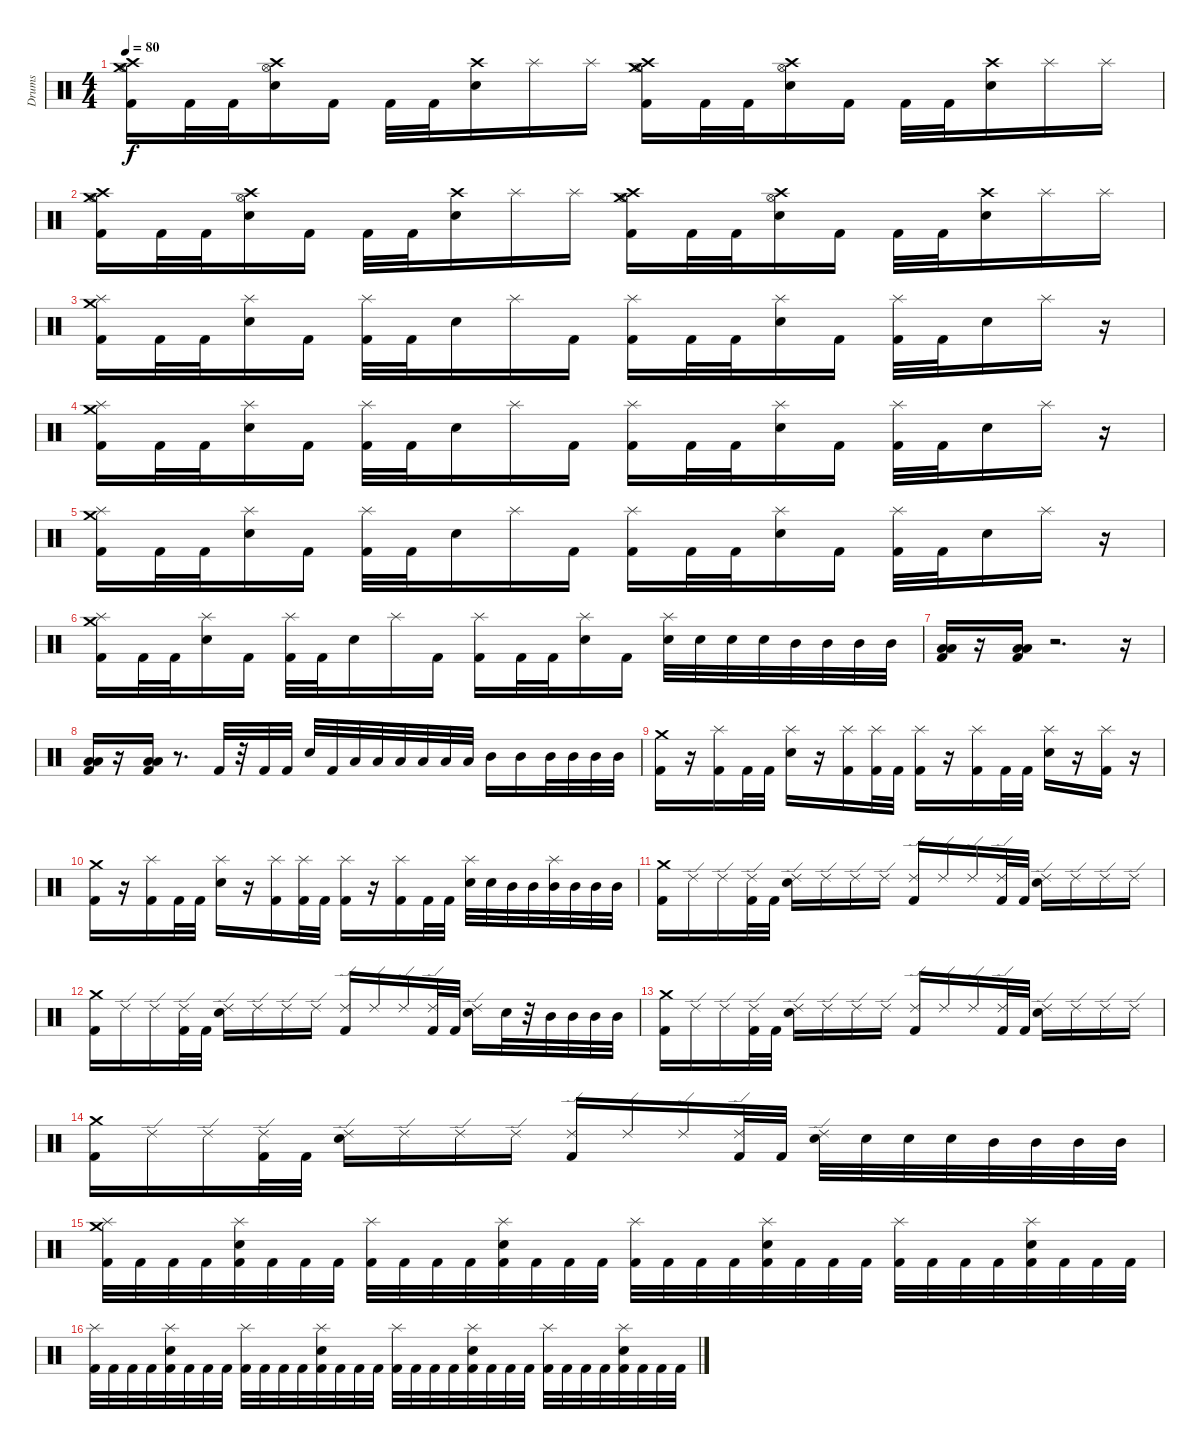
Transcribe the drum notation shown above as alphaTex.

\track ("Drums" "Drums") {instrument percussion}
\staff {score}
\articulation defaults
\ts (4 4)
\tempo 80
\clef neutral
\ks c
("Kick (hit) 2" "Hi-Hat (open)" "Crash high (hit)" "Crash medium (hit)").16{dy f} "Kick (hit) 2".32 "Kick (hit) 2".32 ("Crash high (hit)" "Hi-Hat (open)" "Electric Snare (hit)").16 "Kick (hit) 2".16 "Kick (hit) 2".32 "Kick (hit) 2".32 ("Electric Snare (hit)" "Crash high (hit)").16 "Splash (hit)".16 "Splash (hit)".16 ("Crash high (hit)" "Crash medium (hit)" "Hi-Hat (open)" "Kick (hit) 2").16 "Kick (hit) 2".32 "Kick (hit) 2".32 ("Electric Snare (hit)" "Crash high (hit)" "Hi-Hat (open)").16 "Kick (hit) 2".16 "Kick (hit) 2".32 "Kick (hit) 2".32 ("Electric Snare (hit)" "Crash high (hit)").16 "Splash (hit)".16 "Splash (hit)".16 |
("Hi-Hat (open)" "Crash medium (hit)" "Crash high (hit)" "Kick (hit) 2").16 "Kick (hit) 2".32 "Kick (hit) 2".32 ("Hi-Hat (open)" "Electric Snare (hit)" "Crash high (hit)").16 "Kick (hit) 2".16 "Kick (hit) 2".32 "Kick (hit) 2".32 ("Crash high (hit)" "Electric Snare (hit)").16 "Splash (hit)".16 "Splash (hit)".16 ("Crash medium (hit)" "Kick (hit) 2" "Hi-Hat (open)" "Crash high (hit)").16 "Kick (hit) 2".32 "Kick (hit) 2".32 ("Hi-Hat (open)" "Electric Snare (hit)" "Crash high (hit)").16 "Kick (hit) 2".16 "Kick (hit) 2".32 "Kick (hit) 2".32 ("Crash high (hit)" "Electric Snare (hit)").16 "Splash (hit)".16 "Splash (hit)".16 |
("Crash medium (hit)" "Splash (hit)" "Kick (hit) 2").16 "Kick (hit) 2".32 "Kick (hit) 2".32 ("Splash (hit)" "Electric Snare (hit)").16 "Kick (hit) 2".16 ("Splash (hit)" "Kick (hit) 2").32 "Kick (hit) 2".32 "Electric Snare (hit)".16 "Splash (hit)".16 "Kick (hit) 2".16 ("Splash (hit)" "Kick (hit) 2").16 "Kick (hit) 2".32 "Kick (hit) 2".32 ("Splash (hit)" "Electric Snare (hit)").16 "Kick (hit) 2".16 ("Splash (hit)" "Kick (hit) 2").32 "Kick (hit) 2".32 "Electric Snare (hit)".16 "Splash (hit)".16 r.16 |
("Crash medium (hit)" "Splash (hit)" "Kick (hit) 2").16 "Kick (hit) 2".32 "Kick (hit) 2".32 ("Splash (hit)" "Electric Snare (hit)").16 "Kick (hit) 2".16 ("Splash (hit)" "Kick (hit) 2").32 "Kick (hit) 2".32 "Electric Snare (hit)".16 "Splash (hit)".16 "Kick (hit) 2".16 ("Splash (hit)" "Kick (hit) 2").16 "Kick (hit) 2".32 "Kick (hit) 2".32 ("Splash (hit)" "Electric Snare (hit)").16 "Kick (hit) 2".16 ("Splash (hit)" "Kick (hit) 2").32 "Kick (hit) 2".32 "Electric Snare (hit)".16 "Splash (hit)".16 r.16 |
("Crash medium (hit)" "Splash (hit)" "Kick (hit) 2").16 "Kick (hit) 2".32 "Kick (hit) 2".32 ("Splash (hit)" "Electric Snare (hit)").16 "Kick (hit) 2".16 ("Splash (hit)" "Kick (hit) 2").32 "Kick (hit) 2".32 "Electric Snare (hit)".16 "Splash (hit)".16 "Kick (hit) 2".16 ("Splash (hit)" "Kick (hit) 2").16 "Kick (hit) 2".32 "Kick (hit) 2".32 ("Splash (hit)" "Electric Snare (hit)").16 "Kick (hit) 2".16 ("Splash (hit)" "Kick (hit) 2").32 "Kick (hit) 2".32 "Electric Snare (hit)".16 "Splash (hit)".16 r.16 |
("Crash medium (hit)" "Splash (hit)" "Kick (hit) 2").16 "Kick (hit) 2".32 "Kick (hit) 2".32 ("Splash (hit)" "Electric Snare (hit)").16 "Kick (hit) 2".16 ("Splash (hit)" "Kick (hit) 2").32 "Kick (hit) 2".32 "Electric Snare (hit)".16 "Splash (hit)".16 "Kick (hit) 2".16 ("Splash (hit)" "Kick (hit) 2").16 "Kick (hit) 2".32 "Kick (hit) 2".32 ("Splash (hit)" "Electric Snare (hit)").16 "Kick (hit) 2".16 ("Splash (hit)" "Electric Snare (hit)").32 "Electric Snare (hit)".32 "Electric Snare (hit)".32 "Electric Snare (hit)".32 "Mid Tom (hit)".32 "Mid Tom (hit)".32 "Mid Tom (hit)".32 "Mid Tom (hit)".32 |
("Low Floor Tom (hit)" "Low Tom (hit)" "Kick (hit) 2").16 r.16 ("Kick (hit) 2" "Low Floor Tom (hit)" "Low Tom (hit)").16 r.2{d} r.16 |
("Low Tom (hit)" "Kick (hit) 2" "Low Floor Tom (hit)").16 r.16 ("Kick (hit) 2" "Low Floor Tom (hit)" "Low Tom (hit)").16 r.8{d} "Kick (hit) 2".32 r.32 "Kick (hit) 2".32 "Kick (hit) 2".32 "Electric Snare (hit)".32 "Kick (hit) 2".32 "Low Tom (hit)".32 "Low Tom (hit)".32 "Low Tom (hit)".32 "Low Tom (hit)".32 "Low Tom (hit)".32 "Low Tom (hit)".32 "Mid Tom (hit)".16 "Mid Tom (hit)".16 "Mid Tom (hit)".32 "Mid Tom (hit)".32 "Mid Tom (hit)".32 "Mid Tom (hit)".32 |
("Crash medium (hit)" "Kick (hit) 2").16 r.16 ("Kick (hit) 2" "Splash (hit)").16 "Kick (hit) 2".32 "Kick (hit) 2".32 ("Splash (hit)" "Electric Snare (hit)").16 r.16 ("Kick (hit) 2" "Splash (hit)").16 ("Kick (hit) 2" "Splash (hit)").32 "Kick (hit) 2".32 ("Splash (hit)" "Kick (hit) 2").16 r.16 ("Kick (hit) 2" "Splash (hit)").16 "Kick (hit) 2".32 "Kick (hit) 2".32 ("Splash (hit)" "Electric Snare (hit)").16 r.16 ("Kick (hit) 2" "Splash (hit)").16 r.16 |
("Crash medium (hit)" "Kick (hit) 2").16 r.16 ("Kick (hit) 2" "Splash (hit)").16 "Kick (hit) 2".32 "Kick (hit) 2".32 ("Splash (hit)" "Electric Snare (hit)").16 r.16 ("Kick (hit) 2" "Splash (hit)").16 ("Kick (hit) 2" "Splash (hit)").32 "Kick (hit) 2".32 ("Splash (hit)" "Kick (hit) 2").16 r.16 ("Kick (hit) 2" "Splash (hit)").16 "Kick (hit) 2".32 "Kick (hit) 2".32 ("Splash (hit)" "Electric Snare (hit)").32 "Electric Snare (hit)".32 "Mid Tom (hit)".32 "Mid Tom (hit)".32 ("Mid Tom (hit)" "Splash (hit)").32 "Mid Tom (hit)".32 "Mid Tom (hit)".32 "Mid Tom (hit)".32 |
("Crash medium (hit)" "Kick (hit) 2").16 "Ride (edge) 2".16 "Ride (edge) 2".16 ("Kick (hit) 2" "Ride (edge) 2").32 "Kick (hit) 2".32 ("Ride (edge) 2" "Electric Snare (hit)").16 "Ride (edge) 2".16 "Ride (edge) 2".16 "Ride (edge) 2".16 ("Ride (edge) 2" "Kick (hit) 2").16 "Ride (edge) 2".16 "Ride (edge) 2".16 ("Kick (hit) 2" "Ride (edge) 2").32 "Kick (hit) 2".32 ("Ride (edge) 2" "Electric Snare (hit)").16 "Ride (edge) 2".16 "Ride (edge) 2".16 "Ride (edge) 2".16 |
("Crash medium (hit)" "Kick (hit) 2").16 "Ride (edge) 2".16 "Ride (edge) 2".16 ("Kick (hit) 2" "Ride (edge) 2").32 "Kick (hit) 2".32 ("Ride (edge) 2" "Electric Snare (hit)").16 "Ride (edge) 2".16 "Ride (edge) 2".16 "Ride (edge) 2".16 ("Ride (edge) 2" "Kick (hit) 2").16 "Ride (edge) 2".16 "Ride (edge) 2".16 ("Kick (hit) 2" "Ride (edge) 2").32 "Kick (hit) 2".32 ("Electric Snare (hit)" "Ride (edge) 2").16 "Electric Snare (hit)".32 r.32 "Mid Tom (hit)".32 "Mid Tom (hit)".32 "Mid Tom (hit)".32 "Mid Tom (hit)".32 |
("Crash medium (hit)" "Kick (hit) 2").16 "Ride (edge) 2".16 "Ride (edge) 2".16 ("Kick (hit) 2" "Ride (edge) 2").32 "Kick (hit) 2".32 ("Ride (edge) 2" "Electric Snare (hit)").16 "Ride (edge) 2".16 "Ride (edge) 2".16 "Ride (edge) 2".16 ("Ride (edge) 2" "Kick (hit) 2").16 "Ride (edge) 2".16 "Ride (edge) 2".16 ("Kick (hit) 2" "Ride (edge) 2").32 "Kick (hit) 2".32 ("Ride (edge) 2" "Electric Snare (hit)").16 "Ride (edge) 2".16 "Ride (edge) 2".16 "Ride (edge) 2".16 |
("Crash medium (hit)" "Kick (hit) 2").16 "Ride (edge) 2".16 "Ride (edge) 2".16 ("Kick (hit) 2" "Ride (edge) 2").32 "Kick (hit) 2".32 ("Ride (edge) 2" "Electric Snare (hit)").16 "Ride (edge) 2".16 "Ride (edge) 2".16 "Ride (edge) 2".16 ("Ride (edge) 2" "Kick (hit) 2").16 "Ride (edge) 2".16 "Ride (edge) 2".16 ("Kick (hit) 2" "Ride (edge) 2").32 "Kick (hit) 2".32 ("Electric Snare (hit)" "Ride (edge) 2").32 "Electric Snare (hit)".32 "Electric Snare (hit)".32 "Electric Snare (hit)".32 "Mid Tom (hit)".32 "Mid Tom (hit)".32 "Mid Tom (hit)".32 "Mid Tom (hit)".32 |
("Crash medium (hit)" "Splash (hit)" "Kick (hit) 2").32 "Kick (hit) 2".32 "Kick (hit) 2".32 "Kick (hit) 2".32 ("Electric Snare (hit)" "Splash (hit)" "Kick (hit) 2").32 "Kick (hit) 2".32 "Kick (hit) 2".32 "Kick (hit) 2".32 ("Splash (hit)" "Kick (hit) 2").32 "Kick (hit) 2".32 "Kick (hit) 2".32 "Kick (hit) 2".32 ("Electric Snare (hit)" "Splash (hit)" "Kick (hit) 2").32 "Kick (hit) 2".32 "Kick (hit) 2".32 "Kick (hit) 2".32 ("Splash (hit)" "Kick (hit) 2").32 "Kick (hit) 2".32 "Kick (hit) 2".32 "Kick (hit) 2".32 ("Electric Snare (hit)" "Splash (hit)" "Kick (hit) 2").32 "Kick (hit) 2".32 "Kick (hit) 2".32 "Kick (hit) 2".32 ("Splash (hit)" "Kick (hit) 2").32 "Kick (hit) 2".32 "Kick (hit) 2".32 "Kick (hit) 2".32 ("Electric Snare (hit)" "Splash (hit)" "Kick (hit) 2").32 "Kick (hit) 2".32 "Kick (hit) 2".32 "Kick (hit) 2".32 |
("Splash (hit)" "Kick (hit) 2").32 "Kick (hit) 2".32 "Kick (hit) 2".32 "Kick (hit) 2".32 ("Electric Snare (hit)" "Splash (hit)" "Kick (hit) 2").32 "Kick (hit) 2".32 "Kick (hit) 2".32 "Kick (hit) 2".32 ("Splash (hit)" "Kick (hit) 2").32 "Kick (hit) 2".32 "Kick (hit) 2".32 "Kick (hit) 2".32 ("Electric Snare (hit)" "Splash (hit)" "Kick (hit) 2").32 "Kick (hit) 2".32 "Kick (hit) 2".32 "Kick (hit) 2".32 ("Splash (hit)" "Kick (hit) 2").32 "Kick (hit) 2".32 "Kick (hit) 2".32 "Kick (hit) 2".32 ("Electric Snare (hit)" "Splash (hit)" "Kick (hit) 2").32 "Kick (hit) 2".32 "Kick (hit) 2".32 "Kick (hit) 2".32 ("Splash (hit)" "Kick (hit) 2").32 "Kick (hit) 2".32 "Kick (hit) 2".32 "Kick (hit) 2".32 ("Electric Snare (hit)" "Splash (hit)" "Kick (hit) 2").32 "Kick (hit) 2".32 "Kick (hit) 2".32 "Kick (hit) 2".32
